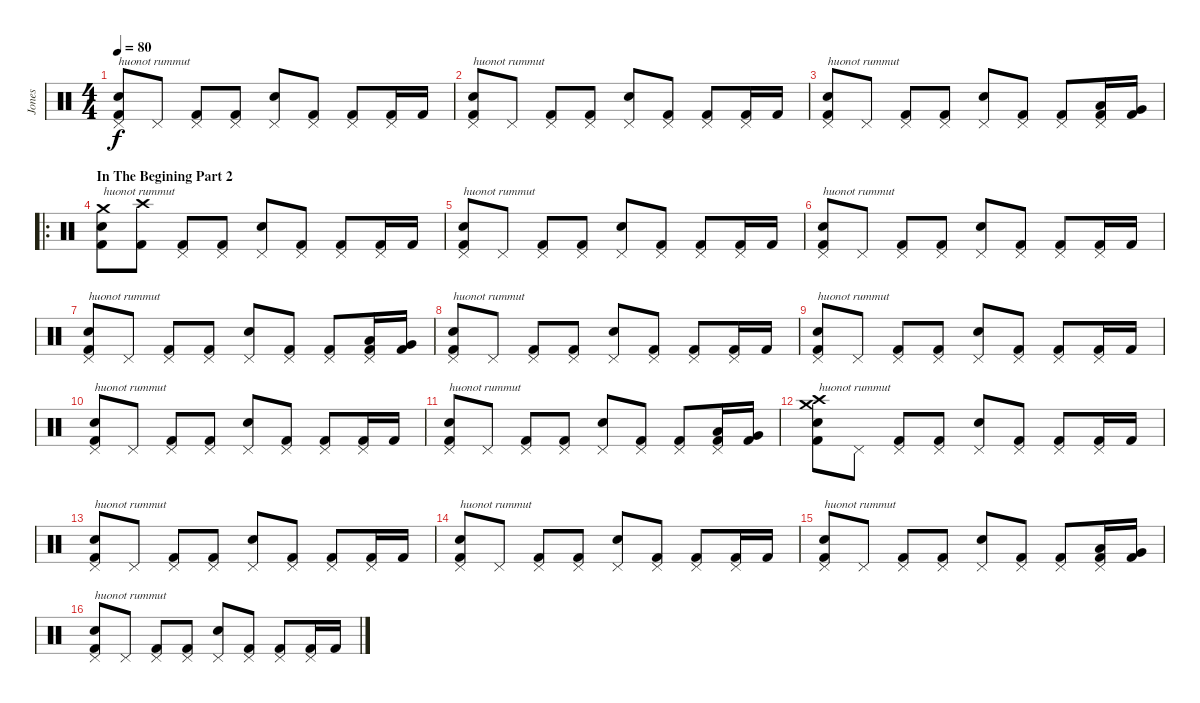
\track ("Jones" "Jones") {instrument percussion}
\staff {score}
\articulation defaults
\ts (4 4)
\tempo 80
\clef neutral
\ks c
("Pedal Hi-Hat (hit)" "Snare (hit) 2" "Kick (hit) 2").8{txt "huonot rummut" dy f} "Pedal Hi-Hat (hit)".8 ("Pedal Hi-Hat (hit)" "Kick (hit) 2").8 ("Pedal Hi-Hat (hit)" "Kick (hit) 2").8 ("Pedal Hi-Hat (hit)" "Snare (hit) 2").8 ("Pedal Hi-Hat (hit)" "Kick (hit) 2").8 ("Pedal Hi-Hat (hit)" "Kick (hit) 2").8 ("Pedal Hi-Hat (hit)" "Kick (hit) 2").16 "Kick (hit) 2".16 |
("Pedal Hi-Hat (hit)" "Snare (hit) 2" "Kick (hit) 2").8{txt "huonot rummut"} "Pedal Hi-Hat (hit)".8 ("Pedal Hi-Hat (hit)" "Kick (hit) 2").8 ("Pedal Hi-Hat (hit)" "Kick (hit) 2").8 ("Pedal Hi-Hat (hit)" "Snare (hit) 2").8 ("Pedal Hi-Hat (hit)" "Kick (hit) 2").8 ("Pedal Hi-Hat (hit)" "Kick (hit) 2").8 ("Pedal Hi-Hat (hit)" "Kick (hit) 2").16 "Kick (hit) 2".16 |
("Pedal Hi-Hat (hit)" "Snare (hit) 2" "Kick (hit) 2").8{txt "huonot rummut"} "Pedal Hi-Hat (hit)".8 ("Pedal Hi-Hat (hit)" "Kick (hit) 2").8 ("Pedal Hi-Hat (hit)" "Kick (hit) 2").8 ("Pedal Hi-Hat (hit)" "Snare (hit) 2").8 ("Pedal Hi-Hat (hit)" "Kick (hit) 2").8 ("Pedal Hi-Hat (hit)" "Kick (hit) 2").8 ("Pedal Hi-Hat (hit)" "Low Tom (hit)" "Kick (hit) 2").16 ("Very Low Tom (hit)" "Kick (hit) 2").16 |
\ro
\section ("" "In The Begining Part 2")
("Crash medium (hit)" "Snare (hit) 2" "Kick (hit) 2").8{txt "huonot rummut"} ("Crash high (hit)" "Kick (hit) 2").8 ("Pedal Hi-Hat (hit)" "Kick (hit) 2").8 ("Pedal Hi-Hat (hit)" "Kick (hit) 2").8 ("Pedal Hi-Hat (hit)" "Snare (hit) 2").8 ("Pedal Hi-Hat (hit)" "Kick (hit) 2").8 ("Pedal Hi-Hat (hit)" "Kick (hit) 2").8 ("Pedal Hi-Hat (hit)" "Kick (hit) 2").16 "Kick (hit) 2".16 |
("Pedal Hi-Hat (hit)" "Snare (hit) 2" "Kick (hit) 2").8{txt "huonot rummut"} "Pedal Hi-Hat (hit)".8 ("Pedal Hi-Hat (hit)" "Kick (hit) 2").8 ("Pedal Hi-Hat (hit)" "Kick (hit) 2").8 ("Pedal Hi-Hat (hit)" "Snare (hit) 2").8 ("Pedal Hi-Hat (hit)" "Kick (hit) 2").8 ("Pedal Hi-Hat (hit)" "Kick (hit) 2").8 ("Pedal Hi-Hat (hit)" "Kick (hit) 2").16 "Kick (hit) 2".16 |
("Pedal Hi-Hat (hit)" "Snare (hit) 2" "Kick (hit) 2").8{txt "huonot rummut"} "Pedal Hi-Hat (hit)".8 ("Pedal Hi-Hat (hit)" "Kick (hit) 2").8 ("Pedal Hi-Hat (hit)" "Kick (hit) 2").8 ("Pedal Hi-Hat (hit)" "Snare (hit) 2").8 ("Pedal Hi-Hat (hit)" "Kick (hit) 2").8 ("Pedal Hi-Hat (hit)" "Kick (hit) 2").8 ("Pedal Hi-Hat (hit)" "Kick (hit) 2").16 "Kick (hit) 2".16 |
("Pedal Hi-Hat (hit)" "Snare (hit) 2" "Kick (hit) 2").8{txt "huonot rummut"} "Pedal Hi-Hat (hit)".8 ("Pedal Hi-Hat (hit)" "Kick (hit) 2").8 ("Pedal Hi-Hat (hit)" "Kick (hit) 2").8 ("Pedal Hi-Hat (hit)" "Snare (hit) 2").8 ("Pedal Hi-Hat (hit)" "Kick (hit) 2").8 ("Pedal Hi-Hat (hit)" "Kick (hit) 2").8 ("Pedal Hi-Hat (hit)" "Low Tom (hit)" "Kick (hit) 2").16 ("Very Low Tom (hit)" "Kick (hit) 2").16 |
("Pedal Hi-Hat (hit)" "Snare (hit) 2" "Kick (hit) 2").8{txt "huonot rummut"} "Pedal Hi-Hat (hit)".8 ("Pedal Hi-Hat (hit)" "Kick (hit) 2").8 ("Pedal Hi-Hat (hit)" "Kick (hit) 2").8 ("Pedal Hi-Hat (hit)" "Snare (hit) 2").8 ("Pedal Hi-Hat (hit)" "Kick (hit) 2").8 ("Pedal Hi-Hat (hit)" "Kick (hit) 2").8 ("Pedal Hi-Hat (hit)" "Kick (hit) 2").16 "Kick (hit) 2".16 |
("Pedal Hi-Hat (hit)" "Snare (hit) 2" "Kick (hit) 2").8{txt "huonot rummut"} "Pedal Hi-Hat (hit)".8 ("Pedal Hi-Hat (hit)" "Kick (hit) 2").8 ("Pedal Hi-Hat (hit)" "Kick (hit) 2").8 ("Pedal Hi-Hat (hit)" "Snare (hit) 2").8 ("Pedal Hi-Hat (hit)" "Kick (hit) 2").8 ("Pedal Hi-Hat (hit)" "Kick (hit) 2").8 ("Pedal Hi-Hat (hit)" "Kick (hit) 2").16 "Kick (hit) 2".16 |
("Pedal Hi-Hat (hit)" "Snare (hit) 2" "Kick (hit) 2").8{txt "huonot rummut"} "Pedal Hi-Hat (hit)".8 ("Pedal Hi-Hat (hit)" "Kick (hit) 2").8 ("Pedal Hi-Hat (hit)" "Kick (hit) 2").8 ("Pedal Hi-Hat (hit)" "Snare (hit) 2").8 ("Pedal Hi-Hat (hit)" "Kick (hit) 2").8 ("Pedal Hi-Hat (hit)" "Kick (hit) 2").8 ("Pedal Hi-Hat (hit)" "Kick (hit) 2").16 "Kick (hit) 2".16 |
("Pedal Hi-Hat (hit)" "Snare (hit) 2" "Kick (hit) 2").8{txt "huonot rummut"} "Pedal Hi-Hat (hit)".8 ("Pedal Hi-Hat (hit)" "Kick (hit) 2").8 ("Pedal Hi-Hat (hit)" "Kick (hit) 2").8 ("Pedal Hi-Hat (hit)" "Snare (hit) 2").8 ("Pedal Hi-Hat (hit)" "Kick (hit) 2").8 ("Pedal Hi-Hat (hit)" "Kick (hit) 2").8 ("Pedal Hi-Hat (hit)" "Low Tom (hit)" "Kick (hit) 2").16 ("Very Low Tom (hit)" "Kick (hit) 2").16 |
("Crash medium (hit)" "Crash high (hit)" "Snare (hit) 2" "Kick (hit) 2").8{txt "huonot rummut"} "Pedal Hi-Hat (hit)".8 ("Pedal Hi-Hat (hit)" "Kick (hit) 2").8 ("Pedal Hi-Hat (hit)" "Kick (hit) 2").8 ("Pedal Hi-Hat (hit)" "Snare (hit) 2").8 ("Pedal Hi-Hat (hit)" "Kick (hit) 2").8 ("Pedal Hi-Hat (hit)" "Kick (hit) 2").8 ("Pedal Hi-Hat (hit)" "Kick (hit) 2").16 "Kick (hit) 2".16 |
("Pedal Hi-Hat (hit)" "Snare (hit) 2" "Kick (hit) 2").8{txt "huonot rummut"} "Pedal Hi-Hat (hit)".8 ("Pedal Hi-Hat (hit)" "Kick (hit) 2").8 ("Pedal Hi-Hat (hit)" "Kick (hit) 2").8 ("Pedal Hi-Hat (hit)" "Snare (hit) 2").8 ("Pedal Hi-Hat (hit)" "Kick (hit) 2").8 ("Pedal Hi-Hat (hit)" "Kick (hit) 2").8 ("Pedal Hi-Hat (hit)" "Kick (hit) 2").16 "Kick (hit) 2".16 |
("Pedal Hi-Hat (hit)" "Snare (hit) 2" "Kick (hit) 2").8{txt "huonot rummut"} "Pedal Hi-Hat (hit)".8 ("Pedal Hi-Hat (hit)" "Kick (hit) 2").8 ("Pedal Hi-Hat (hit)" "Kick (hit) 2").8 ("Pedal Hi-Hat (hit)" "Snare (hit) 2").8 ("Pedal Hi-Hat (hit)" "Kick (hit) 2").8 ("Pedal Hi-Hat (hit)" "Kick (hit) 2").8 ("Pedal Hi-Hat (hit)" "Kick (hit) 2").16 "Kick (hit) 2".16 |
("Pedal Hi-Hat (hit)" "Snare (hit) 2" "Kick (hit) 2").8{txt "huonot rummut"} "Pedal Hi-Hat (hit)".8 ("Pedal Hi-Hat (hit)" "Kick (hit) 2").8 ("Pedal Hi-Hat (hit)" "Kick (hit) 2").8 ("Pedal Hi-Hat (hit)" "Snare (hit) 2").8 ("Pedal Hi-Hat (hit)" "Kick (hit) 2").8 ("Pedal Hi-Hat (hit)" "Kick (hit) 2").8 ("Pedal Hi-Hat (hit)" "Low Tom (hit)" "Kick (hit) 2").16 ("Very Low Tom (hit)" "Kick (hit) 2").16 |
("Pedal Hi-Hat (hit)" "Snare (hit) 2" "Kick (hit) 2").8{txt "huonot rummut"} "Pedal Hi-Hat (hit)".8 ("Pedal Hi-Hat (hit)" "Kick (hit) 2").8 ("Pedal Hi-Hat (hit)" "Kick (hit) 2").8 ("Pedal Hi-Hat (hit)" "Snare (hit) 2").8 ("Pedal Hi-Hat (hit)" "Kick (hit) 2").8 ("Pedal Hi-Hat (hit)" "Kick (hit) 2").8 ("Pedal Hi-Hat (hit)" "Kick (hit) 2").16 "Kick (hit) 2".16
